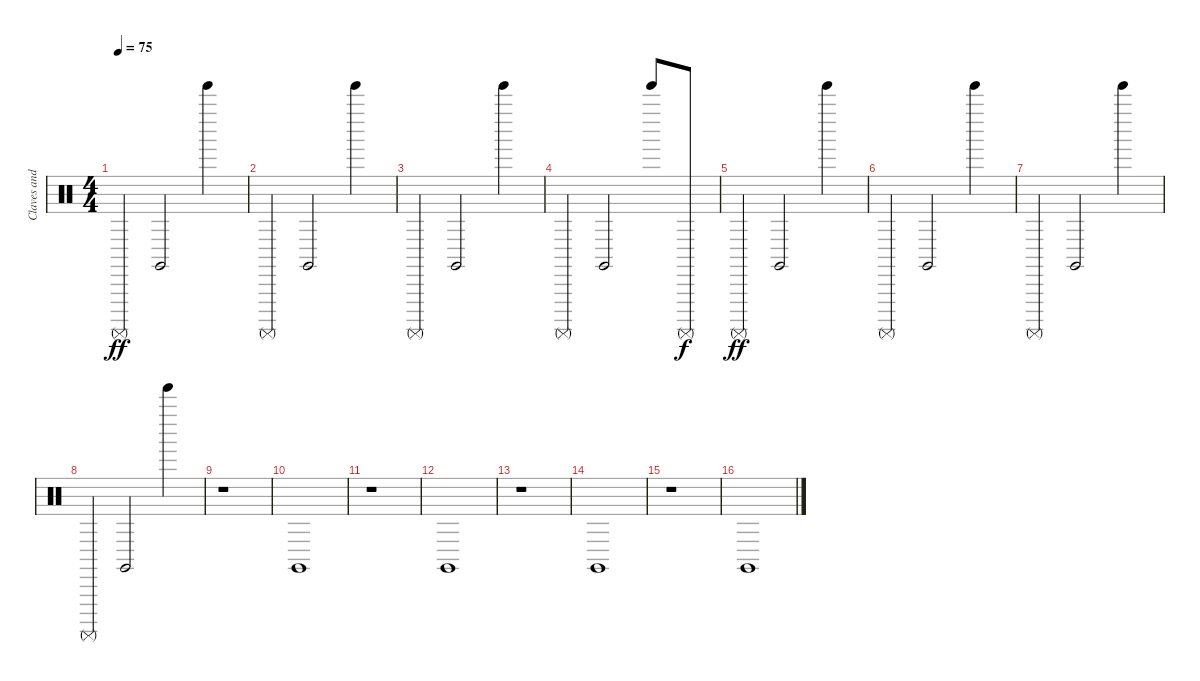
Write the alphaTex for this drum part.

\track ("Claves and Surdo's" "Claves and") {instrument percussion}
\staff {score}
\articulation defaults
\ts (4 4)
\tempo 75
\clef neutral
\ks c "Surdo (mute)".4{dy ff} "Claves (hit)".2 "Tinkle Bell (hit)".4
|
"Surdo (mute)".4 "Claves (hit)".2 "Tinkle Bell (hit)".4 |
"Surdo (mute)".4 "Claves (hit)".2 "Tinkle Bell (hit)".4 |
"Surdo (mute)".4 "Claves (hit)".2 "Tinkle Bell (hit)".8 "Surdo (mute)".8{dy f} |
"Surdo (mute)".4{dy ff} "Claves (hit)".2 "Tinkle Bell (hit)".4 |
"Surdo (mute)".4 "Claves (hit)".2 "Tinkle Bell (hit)".4 |
"Surdo (mute)".4 "Claves (hit)".2 "Tinkle Bell (hit)".4 |
"Surdo (mute)".4 "Claves (hit)".2 "Tinkle Bell (hit)".4 |
r.1 |
"Claves (hit)".1 |
r.1 |
"Claves (hit)".1 |
r.1 |
"Claves (hit)".1 |
r.1 |
"Claves (hit)".1
